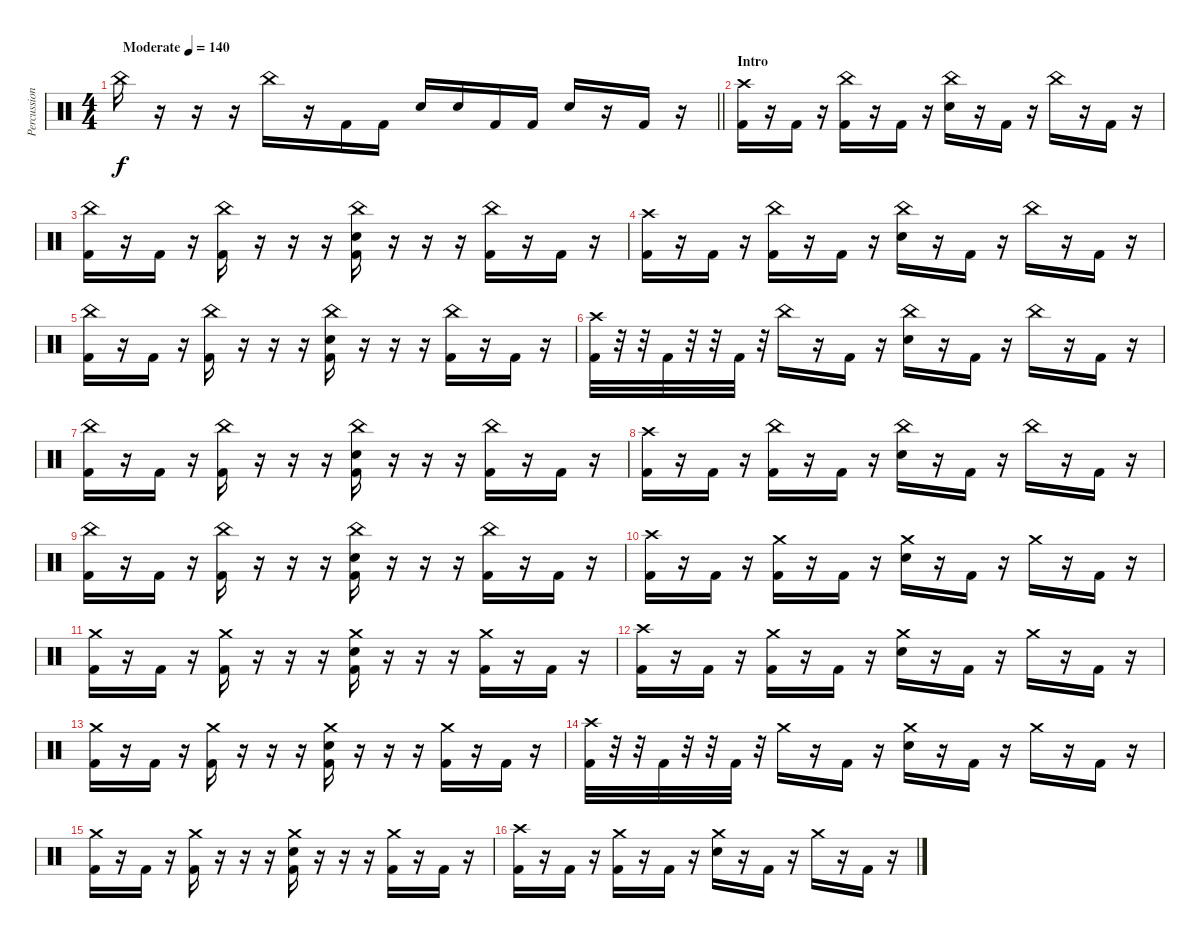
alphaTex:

\track ("Percussion" "Percussion") {instrument percussion}
\staff {score}
\articulation defaults
\ts (4 4)
\tempo (140 "Moderate")
\clef neutral
\barLineRight lightlight
\ks c "China (hit)".16{dy f}
r.16 r.16 r.16 "China (hit)".16 r.16 "Kick (hit) 2".16 "Kick (hit) 2".16 "Electric Snare (hit)".16 "Electric Snare (hit)".16 "Kick (hit) 2".16 "Kick (hit) 2".16 "Electric Snare (hit)".16 r.16 "Kick (hit) 2".16 r.16 |
\section ("" "Intro")
("Crash high (hit)" "Kick (hit) 2").16 r.16 "Kick (hit) 2".16 r.16 ("China (hit)" "Kick (hit) 2").16 r.16 "Kick (hit) 2".16 r.16 ("China (hit)" "Electric Snare (hit)").16 r.16 "Kick (hit) 2".16 r.16 "China (hit)".16 r.16 "Kick (hit) 2".16 r.16 |
("China (hit)" "Kick (hit) 2").16 r.16 "Kick (hit) 2".16 r.16 ("China (hit)" "Kick (hit) 2").16 r.16 r.16 r.16 ("China (hit)" "Electric Snare (hit)" "Kick (hit) 2").16 r.16 r.16 r.16 ("China (hit)" "Kick (hit) 2").16 r.16 "Kick (hit) 2".16 r.16 |
("Crash high (hit)" "Kick (hit) 2").16 r.16 "Kick (hit) 2".16 r.16 ("China (hit)" "Kick (hit) 2").16 r.16 "Kick (hit) 2".16 r.16 ("China (hit)" "Electric Snare (hit)").16 r.16 "Kick (hit) 2".16 r.16 "China (hit)".16 r.16 "Kick (hit) 2".16 r.16 |
("China (hit)" "Kick (hit) 2").16 r.16 "Kick (hit) 2".16 r.16 ("China (hit)" "Kick (hit) 2").16 r.16 r.16 r.16 ("China (hit)" "Electric Snare (hit)" "Kick (hit) 2").16 r.16 r.16 r.16 ("China (hit)" "Kick (hit) 2").16 r.16 "Kick (hit) 2".16 r.16 |
("Crash high (hit)" "Kick (hit) 2").32 r.32 r.32 "Kick (hit) 2".32 r.32 r.32 "Kick (hit) 2".32 r.32 "China (hit)".16 r.16 "Kick (hit) 2".16 r.16 ("China (hit)" "Electric Snare (hit)").16 r.16 "Kick (hit) 2".16 r.16 "China (hit)".16 r.16 "Kick (hit) 2".16 r.16 |
("China (hit)" "Kick (hit) 2").16 r.16 "Kick (hit) 2".16 r.16 ("China (hit)" "Kick (hit) 2").16 r.16 r.16 r.16 ("China (hit)" "Electric Snare (hit)" "Kick (hit) 2").16 r.16 r.16 r.16 ("China (hit)" "Kick (hit) 2").16 r.16 "Kick (hit) 2".16 r.16 |
("Crash high (hit)" "Kick (hit) 2").16 r.16 "Kick (hit) 2".16 r.16 ("China (hit)" "Kick (hit) 2").16 r.16 "Kick (hit) 2".16 r.16 ("China (hit)" "Electric Snare (hit)").16 r.16 "Kick (hit) 2".16 r.16 "China (hit)".16 r.16 "Kick (hit) 2".16 r.16 |
("China (hit)" "Kick (hit) 2").16 r.16 "Kick (hit) 2".16 r.16 ("China (hit)" "Kick (hit) 2").16 r.16 r.16 r.16 ("China (hit)" "Electric Snare (hit)" "Kick (hit) 2").16 r.16 r.16 r.16 ("China (hit)" "Kick (hit) 2").16 r.16 "Kick (hit) 2".16 r.16 |
("Crash high (hit)" "Kick (hit) 2").16 r.16 "Kick (hit) 2".16 r.16 ("Crash medium (hit)" "Kick (hit) 2").16 r.16 "Kick (hit) 2".16 r.16 ("Crash medium (hit)" "Electric Snare (hit)").16 r.16 "Kick (hit) 2".16 r.16 "Crash medium (hit)".16 r.16 "Kick (hit) 2".16 r.16 |
("Crash medium (hit)" "Kick (hit) 2").16 r.16 "Kick (hit) 2".16 r.16 ("Crash medium (hit)" "Kick (hit) 2").16 r.16 r.16 r.16 ("Crash medium (hit)" "Electric Snare (hit)" "Kick (hit) 2").16 r.16 r.16 r.16 ("Crash medium (hit)" "Kick (hit) 2").16 r.16 "Kick (hit) 2".16 r.16 |
("Crash high (hit)" "Kick (hit) 2").16 r.16 "Kick (hit) 2".16 r.16 ("Crash medium (hit)" "Kick (hit) 2").16 r.16 "Kick (hit) 2".16 r.16 ("Crash medium (hit)" "Electric Snare (hit)").16 r.16 "Kick (hit) 2".16 r.16 "Crash medium (hit)".16 r.16 "Kick (hit) 2".16 r.16 |
("Crash medium (hit)" "Kick (hit) 2").16 r.16 "Kick (hit) 2".16 r.16 ("Crash medium (hit)" "Kick (hit) 2").16 r.16 r.16 r.16 ("Crash medium (hit)" "Electric Snare (hit)" "Kick (hit) 2").16 r.16 r.16 r.16 ("Crash medium (hit)" "Kick (hit) 2").16 r.16 "Kick (hit) 2".16 r.16 |
("Crash high (hit)" "Kick (hit) 2").32 r.32 r.32 "Kick (hit) 2".32 r.32 r.32 "Kick (hit) 2".32 r.32 "Crash medium (hit)".16 r.16 "Kick (hit) 2".16 r.16 ("Crash medium (hit)" "Electric Snare (hit)").16 r.16 "Kick (hit) 2".16 r.16 "Crash medium (hit)".16 r.16 "Kick (hit) 2".16 r.16 |
("Crash medium (hit)" "Kick (hit) 2").16 r.16 "Kick (hit) 2".16 r.16 ("Crash medium (hit)" "Kick (hit) 2").16 r.16 r.16 r.16 ("Crash medium (hit)" "Electric Snare (hit)" "Kick (hit) 2").16 r.16 r.16 r.16 ("Crash medium (hit)" "Kick (hit) 2").16 r.16 "Kick (hit) 2".16 r.16 |
("Crash high (hit)" "Kick (hit) 2").16 r.16 "Kick (hit) 2".16 r.16 ("Crash medium (hit)" "Kick (hit) 2").16 r.16 "Kick (hit) 2".16 r.16 ("Crash medium (hit)" "Electric Snare (hit)").16 r.16 "Kick (hit) 2".16 r.16 "Crash medium (hit)".16 r.16 "Kick (hit) 2".16 r.16
